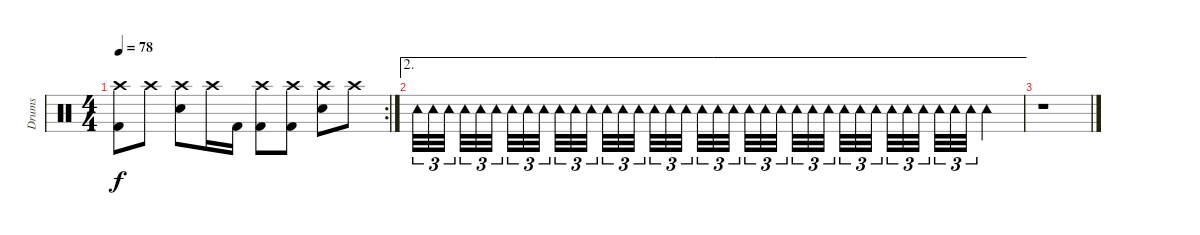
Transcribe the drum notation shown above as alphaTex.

\track ("Drums" "Drums") {instrument percussion}
\staff {score}
\articulation defaults
\rc 2
\ts (4 4)
\tempo 78
\clef neutral
\ks c
("Crash high (hit)" "Kick (hit) 2").8{dy f} "Crash high (hit)".8 ("Crash high (hit)" "Electric Snare (hit)").8 "Crash high (hit)".16 "Kick (hit) 2".16 ("Crash high (hit)" "Kick (hit) 2").8 ("Crash high (hit)" "Kick (hit) 2").8 ("Crash high (hit)" "Electric Snare (hit)").8 "Crash high (hit)".8 |
\ae 2 "Tambourine (hit)".32{tu (3 2) volume 7} "Tambourine (hit)".32{tu (3 2) volume 2} "Tambourine (hit)".32{tu (3 2) beam splitsecondary} "Tambourine (hit)".32{tu (3 2)} "Tambourine (hit)".32{tu (3 2)} "Tambourine (hit)".32{tu (3 2) beam splitsecondary} "Tambourine (hit)".32{tu (3 2)} "Tambourine (hit)".32{tu (3 2)} "Tambourine (hit)".32{tu (3 2) beam splitsecondary} "Tambourine (hit)".32{tu (3 2)} "Tambourine (hit)".32{tu (3 2)} "Tambourine (hit)".32{tu (3 2)} "Tambourine (hit)".32{tu (3 2)} "Tambourine (hit)".32{tu (3 2)} "Tambourine (hit)".32{tu (3 2) beam splitsecondary} "Tambourine (hit)".32{tu (3 2)} "Tambourine (hit)".32{tu (3 2)} "Tambourine (hit)".32{tu (3 2) beam splitsecondary} "Tambourine (hit)".32{tu (3 2)} "Tambourine (hit)".32{tu (3 2)} "Tambourine (hit)".32{tu (3 2) beam splitsecondary} "Tambourine (hit)".32{tu (3 2)} "Tambourine (hit)".32{tu (3 2)} "Tambourine (hit)".32{tu (3 2)} "Tambourine (hit)".32{tu (3 2)} "Tambourine (hit)".32{tu (3 2)} "Tambourine (hit)".32{tu (3 2) beam splitsecondary} "Tambourine (hit)".32{tu (3 2)} "Tambourine (hit)".32{tu (3 2)} "Tambourine (hit)".32{tu (3 2) beam splitsecondary} "Tambourine (hit)".32{tu (3 2)} "Tambourine (hit)".32{tu (3 2)} "Tambourine (hit)".32{tu (3 2) beam splitsecondary} "Tambourine (hit)".32{tu (3 2)} "Tambourine (hit)".32{tu (3 2)} "Tambourine (hit)".32{tu (3 2)} "Tambourine (hit)".4
|
r.1
